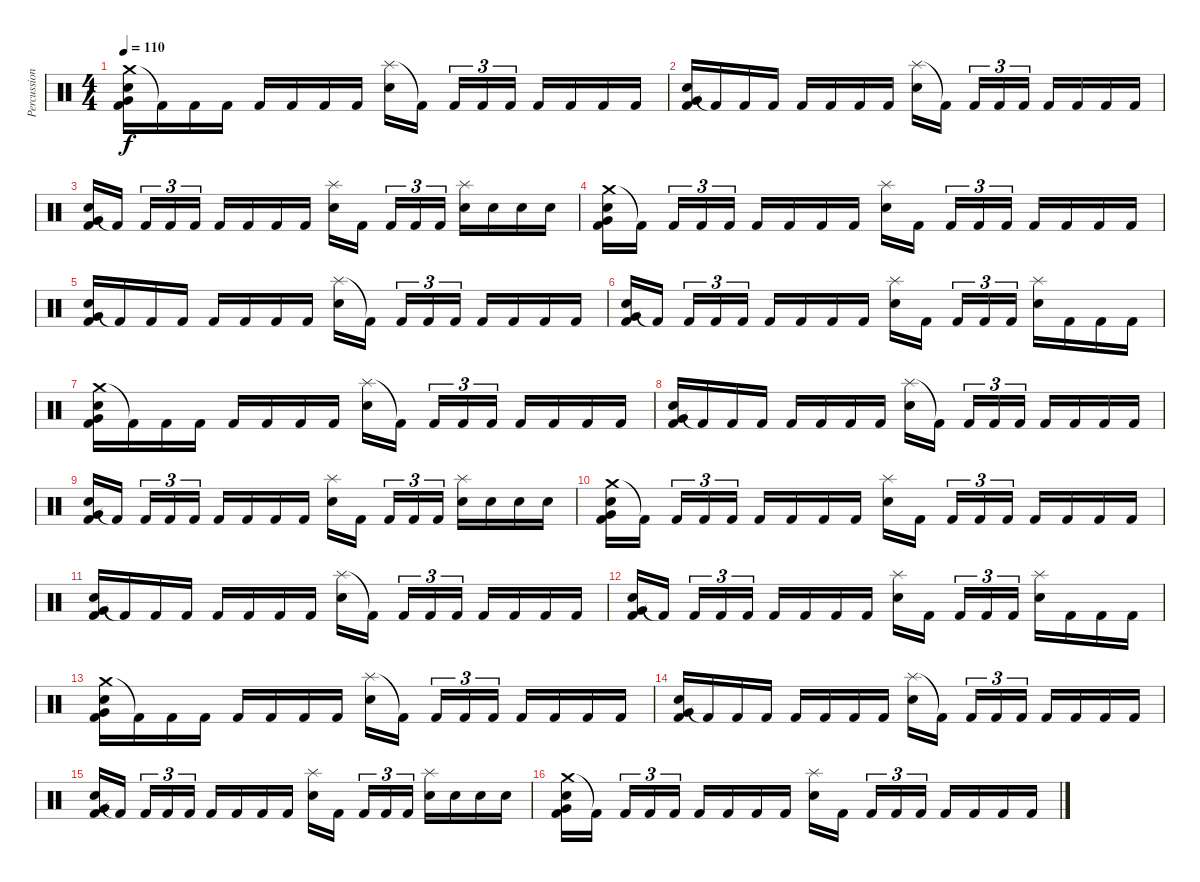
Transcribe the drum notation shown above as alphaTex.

\track ("Percussion" "Percussion") {instrument percussion}
\staff {score}
\articulation defaults
\ts (4 4)
\tempo 110
\clef neutral
\ks c
("Crash medium (hit)" "Electric Snare (hit)" "Very Low Tom (hit)" "Kick (hit) 2").16{dy f} "Kick (hit) 2"{t}.16 "Kick (hit) 2".16 "Kick (hit) 2".16 "Kick (hit) 2".16 "Kick (hit) 2".16 "Kick (hit) 2".16 "Kick (hit) 2".16 ("Splash (hit)" "Electric Snare (hit)").16 "Kick (hit) 2"{t}.16 "Kick (hit) 2".16{tu (3 2)} "Kick (hit) 2".16{tu (3 2)} "Kick (hit) 2".16{tu (3 2)} "Kick (hit) 2".16 "Kick (hit) 2".16 "Kick (hit) 2".16 "Kick (hit) 2".16 |
("Electric Snare (hit)" "Very Low Tom (hit)" "Kick (hit) 2").16 "Kick (hit) 2"{t}.16 "Kick (hit) 2".16 "Kick (hit) 2".16 "Kick (hit) 2".16 "Kick (hit) 2".16 "Kick (hit) 2".16 "Kick (hit) 2".16 ("Splash (hit)" "Electric Snare (hit)").16 "Kick (hit) 2"{t}.16 "Kick (hit) 2".16{tu (3 2)} "Kick (hit) 2".16{tu (3 2)} "Kick (hit) 2".16{tu (3 2)} "Kick (hit) 2".16 "Kick (hit) 2".16 "Kick (hit) 2".16 "Kick (hit) 2".16 |
("Electric Snare (hit)" "Very Low Tom (hit)" "Kick (hit) 2").16 "Kick (hit) 2"{t}.16 "Kick (hit) 2".16{tu (3 2)} "Kick (hit) 2".16{tu (3 2)} "Kick (hit) 2".16{tu (3 2)} "Kick (hit) 2".16 "Kick (hit) 2".16 "Kick (hit) 2".16 "Kick (hit) 2".16 ("Splash (hit)" "Electric Snare (hit)").16 "Kick (hit) 2".16 "Kick (hit) 2".16{tu (3 2)} "Kick (hit) 2".16{tu (3 2)} "Kick (hit) 2".16{tu (3 2)} ("Splash (hit)" "Electric Snare (hit)").16 "Electric Snare (hit)".16 "Electric Snare (hit)".16 "Electric Snare (hit)".16 |
("Crash medium (hit)" "Electric Snare (hit)" "Very Low Tom (hit)" "Kick (hit) 2").16 "Kick (hit) 2"{t}.16 "Kick (hit) 2".16{tu (3 2)} "Kick (hit) 2".16{tu (3 2)} "Kick (hit) 2".16{tu (3 2)} "Kick (hit) 2".16 "Kick (hit) 2".16 "Kick (hit) 2".16 "Kick (hit) 2".16 ("Splash (hit)" "Electric Snare (hit)").16 "Kick (hit) 2".16 "Kick (hit) 2".16{tu (3 2)} "Kick (hit) 2".16{tu (3 2)} "Kick (hit) 2".16{tu (3 2)} "Kick (hit) 2".16 "Kick (hit) 2".16 "Kick (hit) 2".16 "Kick (hit) 2".16 |
("Electric Snare (hit)" "Very Low Tom (hit)" "Kick (hit) 2").16 "Kick (hit) 2"{t}.16 "Kick (hit) 2".16 "Kick (hit) 2".16 "Kick (hit) 2".16 "Kick (hit) 2".16 "Kick (hit) 2".16 "Kick (hit) 2".16 ("Splash (hit)" "Electric Snare (hit)").16 "Kick (hit) 2"{t}.16 "Kick (hit) 2".16{tu (3 2)} "Kick (hit) 2".16{tu (3 2)} "Kick (hit) 2".16{tu (3 2)} "Kick (hit) 2".16 "Kick (hit) 2".16 "Kick (hit) 2".16 "Kick (hit) 2".16 |
("Electric Snare (hit)" "Very Low Tom (hit)" "Kick (hit) 2").16 "Kick (hit) 2"{t}.16 "Kick (hit) 2".16{tu (3 2)} "Kick (hit) 2".16{tu (3 2)} "Kick (hit) 2".16{tu (3 2)} "Kick (hit) 2".16 "Kick (hit) 2".16 "Kick (hit) 2".16 "Kick (hit) 2".16 ("Splash (hit)" "Electric Snare (hit)").16 "Kick (hit) 2".16 "Kick (hit) 2".16{tu (3 2)} "Kick (hit) 2".16{tu (3 2)} "Kick (hit) 2".16{tu (3 2)} ("Splash (hit)" "Electric Snare (hit)").16 "Kick (hit) 2".16 "Kick (hit) 2".16 "Kick (hit) 2".16 |
("Crash medium (hit)" "Electric Snare (hit)" "Very Low Tom (hit)" "Kick (hit) 2").16 "Kick (hit) 2"{t}.16 "Kick (hit) 2".16 "Kick (hit) 2".16 "Kick (hit) 2".16 "Kick (hit) 2".16 "Kick (hit) 2".16 "Kick (hit) 2".16 ("Splash (hit)" "Electric Snare (hit)").16 "Kick (hit) 2"{t}.16 "Kick (hit) 2".16{tu (3 2)} "Kick (hit) 2".16{tu (3 2)} "Kick (hit) 2".16{tu (3 2)} "Kick (hit) 2".16 "Kick (hit) 2".16 "Kick (hit) 2".16 "Kick (hit) 2".16 |
("Electric Snare (hit)" "Very Low Tom (hit)" "Kick (hit) 2").16 "Kick (hit) 2"{t}.16 "Kick (hit) 2".16 "Kick (hit) 2".16 "Kick (hit) 2".16 "Kick (hit) 2".16 "Kick (hit) 2".16 "Kick (hit) 2".16 ("Splash (hit)" "Electric Snare (hit)").16 "Kick (hit) 2"{t}.16 "Kick (hit) 2".16{tu (3 2)} "Kick (hit) 2".16{tu (3 2)} "Kick (hit) 2".16{tu (3 2)} "Kick (hit) 2".16 "Kick (hit) 2".16 "Kick (hit) 2".16 "Kick (hit) 2".16 |
("Electric Snare (hit)" "Very Low Tom (hit)" "Kick (hit) 2").16 "Kick (hit) 2"{t}.16 "Kick (hit) 2".16{tu (3 2)} "Kick (hit) 2".16{tu (3 2)} "Kick (hit) 2".16{tu (3 2)} "Kick (hit) 2".16 "Kick (hit) 2".16 "Kick (hit) 2".16 "Kick (hit) 2".16 ("Splash (hit)" "Electric Snare (hit)").16 "Kick (hit) 2".16 "Kick (hit) 2".16{tu (3 2)} "Kick (hit) 2".16{tu (3 2)} "Kick (hit) 2".16{tu (3 2)} ("Splash (hit)" "Electric Snare (hit)").16 "Electric Snare (hit)".16 "Electric Snare (hit)".16 "Electric Snare (hit)".16 |
("Crash medium (hit)" "Electric Snare (hit)" "Very Low Tom (hit)" "Kick (hit) 2").16 "Kick (hit) 2"{t}.16 "Kick (hit) 2".16{tu (3 2)} "Kick (hit) 2".16{tu (3 2)} "Kick (hit) 2".16{tu (3 2)} "Kick (hit) 2".16 "Kick (hit) 2".16 "Kick (hit) 2".16 "Kick (hit) 2".16 ("Splash (hit)" "Electric Snare (hit)").16 "Kick (hit) 2".16 "Kick (hit) 2".16{tu (3 2)} "Kick (hit) 2".16{tu (3 2)} "Kick (hit) 2".16{tu (3 2)} "Kick (hit) 2".16 "Kick (hit) 2".16 "Kick (hit) 2".16 "Kick (hit) 2".16 |
("Electric Snare (hit)" "Very Low Tom (hit)" "Kick (hit) 2").16 "Kick (hit) 2"{t}.16 "Kick (hit) 2".16 "Kick (hit) 2".16 "Kick (hit) 2".16 "Kick (hit) 2".16 "Kick (hit) 2".16 "Kick (hit) 2".16 ("Splash (hit)" "Electric Snare (hit)").16 "Kick (hit) 2"{t}.16 "Kick (hit) 2".16{tu (3 2)} "Kick (hit) 2".16{tu (3 2)} "Kick (hit) 2".16{tu (3 2)} "Kick (hit) 2".16 "Kick (hit) 2".16 "Kick (hit) 2".16 "Kick (hit) 2".16 |
("Electric Snare (hit)" "Very Low Tom (hit)" "Kick (hit) 2").16 "Kick (hit) 2"{t}.16 "Kick (hit) 2".16{tu (3 2)} "Kick (hit) 2".16{tu (3 2)} "Kick (hit) 2".16{tu (3 2)} "Kick (hit) 2".16 "Kick (hit) 2".16 "Kick (hit) 2".16 "Kick (hit) 2".16 ("Splash (hit)" "Electric Snare (hit)").16 "Kick (hit) 2".16 "Kick (hit) 2".16{tu (3 2)} "Kick (hit) 2".16{tu (3 2)} "Kick (hit) 2".16{tu (3 2)} ("Splash (hit)" "Electric Snare (hit)").16 "Kick (hit) 2".16 "Kick (hit) 2".16 "Kick (hit) 2".16 |
("Crash medium (hit)" "Electric Snare (hit)" "Very Low Tom (hit)" "Kick (hit) 2").16 "Kick (hit) 2"{t}.16 "Kick (hit) 2".16 "Kick (hit) 2".16 "Kick (hit) 2".16 "Kick (hit) 2".16 "Kick (hit) 2".16 "Kick (hit) 2".16 ("Splash (hit)" "Electric Snare (hit)").16 "Kick (hit) 2"{t}.16 "Kick (hit) 2".16{tu (3 2)} "Kick (hit) 2".16{tu (3 2)} "Kick (hit) 2".16{tu (3 2)} "Kick (hit) 2".16 "Kick (hit) 2".16 "Kick (hit) 2".16 "Kick (hit) 2".16 |
("Electric Snare (hit)" "Very Low Tom (hit)" "Kick (hit) 2").16 "Kick (hit) 2"{t}.16 "Kick (hit) 2".16 "Kick (hit) 2".16 "Kick (hit) 2".16 "Kick (hit) 2".16 "Kick (hit) 2".16 "Kick (hit) 2".16 ("Splash (hit)" "Electric Snare (hit)").16 "Kick (hit) 2"{t}.16 "Kick (hit) 2".16{tu (3 2)} "Kick (hit) 2".16{tu (3 2)} "Kick (hit) 2".16{tu (3 2)} "Kick (hit) 2".16 "Kick (hit) 2".16 "Kick (hit) 2".16 "Kick (hit) 2".16 |
("Electric Snare (hit)" "Very Low Tom (hit)" "Kick (hit) 2").16 "Kick (hit) 2"{t}.16 "Kick (hit) 2".16{tu (3 2)} "Kick (hit) 2".16{tu (3 2)} "Kick (hit) 2".16{tu (3 2)} "Kick (hit) 2".16 "Kick (hit) 2".16 "Kick (hit) 2".16 "Kick (hit) 2".16 ("Splash (hit)" "Electric Snare (hit)").16 "Kick (hit) 2".16 "Kick (hit) 2".16{tu (3 2)} "Kick (hit) 2".16{tu (3 2)} "Kick (hit) 2".16{tu (3 2)} ("Splash (hit)" "Electric Snare (hit)").16 "Electric Snare (hit)".16 "Electric Snare (hit)".16 "Electric Snare (hit)".16 |
("Crash medium (hit)" "Electric Snare (hit)" "Very Low Tom (hit)" "Kick (hit) 2").16 "Kick (hit) 2"{t}.16 "Kick (hit) 2".16{tu (3 2)} "Kick (hit) 2".16{tu (3 2)} "Kick (hit) 2".16{tu (3 2)} "Kick (hit) 2".16 "Kick (hit) 2".16 "Kick (hit) 2".16 "Kick (hit) 2".16 ("Splash (hit)" "Electric Snare (hit)").16 "Kick (hit) 2".16 "Kick (hit) 2".16{tu (3 2)} "Kick (hit) 2".16{tu (3 2)} "Kick (hit) 2".16{tu (3 2)} "Kick (hit) 2".16 "Kick (hit) 2".16 "Kick (hit) 2".16 "Kick (hit) 2".16
